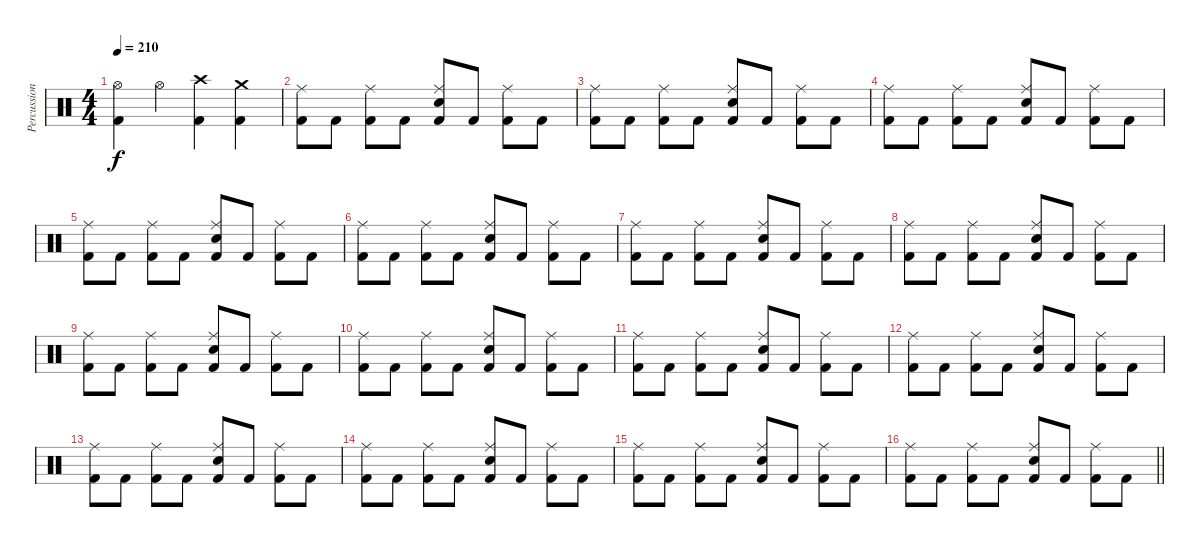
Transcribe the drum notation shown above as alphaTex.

\track ("Percussions" "Percussion") {instrument percussion}
\staff {score}
\articulation defaults
\ts (4 4)
\tempo 210
\clef neutral
\ks c
("Kick (hit) 2" "Hi-Hat (open)").4{dy f} "Hi-Hat (open)".4 ("Kick (hit) 2" "Crash high (hit)").4 ("Kick (hit) 2" "Crash medium (hit)").4 |
("Kick (hit) 2" "Ride (middle)").8 "Kick (hit) 2".8 ("Kick (hit) 2" "Ride (middle)").8 "Kick (hit) 2".8 ("Kick (hit) 2" "Electric Snare (hit)" "Ride (middle)").8 "Kick (hit) 2".8 ("Kick (hit) 2" "Ride (middle)").8 "Kick (hit) 2".8 |
("Kick (hit) 2" "Ride (middle)").8 "Kick (hit) 2".8 ("Kick (hit) 2" "Ride (middle)").8 "Kick (hit) 2".8 ("Kick (hit) 2" "Electric Snare (hit)" "Ride (middle)").8 "Kick (hit) 2".8 ("Kick (hit) 2" "Ride (middle)").8 "Kick (hit) 2".8 |
("Kick (hit) 2" "Ride (middle)").8 "Kick (hit) 2".8 ("Kick (hit) 2" "Ride (middle)").8 "Kick (hit) 2".8 ("Kick (hit) 2" "Electric Snare (hit)" "Ride (middle)").8 "Kick (hit) 2".8 ("Kick (hit) 2" "Ride (middle)").8 "Kick (hit) 2".8 |
("Kick (hit) 2" "Ride (middle)").8 "Kick (hit) 2".8 ("Kick (hit) 2" "Ride (middle)").8 "Kick (hit) 2".8 ("Kick (hit) 2" "Electric Snare (hit)" "Ride (middle)").8 "Kick (hit) 2".8 ("Kick (hit) 2" "Ride (middle)").8 "Kick (hit) 2".8 |
("Kick (hit) 2" "Ride (middle)").8 "Kick (hit) 2".8 ("Kick (hit) 2" "Ride (middle)").8 "Kick (hit) 2".8 ("Kick (hit) 2" "Electric Snare (hit)" "Ride (middle)").8 "Kick (hit) 2".8 ("Kick (hit) 2" "Ride (middle)").8 "Kick (hit) 2".8 |
("Kick (hit) 2" "Ride (middle)").8 "Kick (hit) 2".8 ("Kick (hit) 2" "Ride (middle)").8 "Kick (hit) 2".8 ("Kick (hit) 2" "Electric Snare (hit)" "Ride (middle)").8 "Kick (hit) 2".8 ("Kick (hit) 2" "Ride (middle)").8 "Kick (hit) 2".8 |
("Kick (hit) 2" "Ride (middle)").8 "Kick (hit) 2".8 ("Kick (hit) 2" "Ride (middle)").8 "Kick (hit) 2".8 ("Kick (hit) 2" "Electric Snare (hit)" "Ride (middle)").8 "Kick (hit) 2".8 ("Kick (hit) 2" "Ride (middle)").8 "Kick (hit) 2".8 |
("Kick (hit) 2" "Ride (middle)").8 "Kick (hit) 2".8 ("Kick (hit) 2" "Ride (middle)").8 "Kick (hit) 2".8 ("Kick (hit) 2" "Electric Snare (hit)" "Ride (middle)").8 "Kick (hit) 2".8 ("Kick (hit) 2" "Ride (middle)").8 "Kick (hit) 2".8 |
("Kick (hit) 2" "Ride (middle)").8 "Kick (hit) 2".8 ("Kick (hit) 2" "Ride (middle)").8 "Kick (hit) 2".8 ("Kick (hit) 2" "Electric Snare (hit)" "Ride (middle)").8 "Kick (hit) 2".8 ("Kick (hit) 2" "Ride (middle)").8 "Kick (hit) 2".8 |
("Kick (hit) 2" "Ride (middle)").8 "Kick (hit) 2".8 ("Kick (hit) 2" "Ride (middle)").8 "Kick (hit) 2".8 ("Kick (hit) 2" "Electric Snare (hit)" "Ride (middle)").8 "Kick (hit) 2".8 ("Kick (hit) 2" "Ride (middle)").8 "Kick (hit) 2".8 |
("Kick (hit) 2" "Ride (middle)").8 "Kick (hit) 2".8 ("Kick (hit) 2" "Ride (middle)").8 "Kick (hit) 2".8 ("Kick (hit) 2" "Electric Snare (hit)" "Ride (middle)").8 "Kick (hit) 2".8 ("Kick (hit) 2" "Ride (middle)").8 "Kick (hit) 2".8 |
("Kick (hit) 2" "Ride (middle)").8 "Kick (hit) 2".8 ("Kick (hit) 2" "Ride (middle)").8 "Kick (hit) 2".8 ("Kick (hit) 2" "Electric Snare (hit)" "Ride (middle)").8 "Kick (hit) 2".8 ("Kick (hit) 2" "Ride (middle)").8 "Kick (hit) 2".8 |
("Kick (hit) 2" "Ride (middle)").8 "Kick (hit) 2".8 ("Kick (hit) 2" "Ride (middle)").8 "Kick (hit) 2".8 ("Kick (hit) 2" "Electric Snare (hit)" "Ride (middle)").8 "Kick (hit) 2".8 ("Kick (hit) 2" "Ride (middle)").8 "Kick (hit) 2".8 |
("Kick (hit) 2" "Ride (middle)").8 "Kick (hit) 2".8 ("Kick (hit) 2" "Ride (middle)").8 "Kick (hit) 2".8 ("Kick (hit) 2" "Electric Snare (hit)" "Ride (middle)").8 "Kick (hit) 2".8 ("Kick (hit) 2" "Ride (middle)").8 "Kick (hit) 2".8 |
\barLineRight lightlight
("Kick (hit) 2" "Ride (middle)").8 "Kick (hit) 2".8 ("Kick (hit) 2" "Ride (middle)").8 "Kick (hit) 2".8 ("Kick (hit) 2" "Electric Snare (hit)" "Ride (middle)").8 "Kick (hit) 2".8 ("Kick (hit) 2" "Ride (middle)").8 "Kick (hit) 2".8
